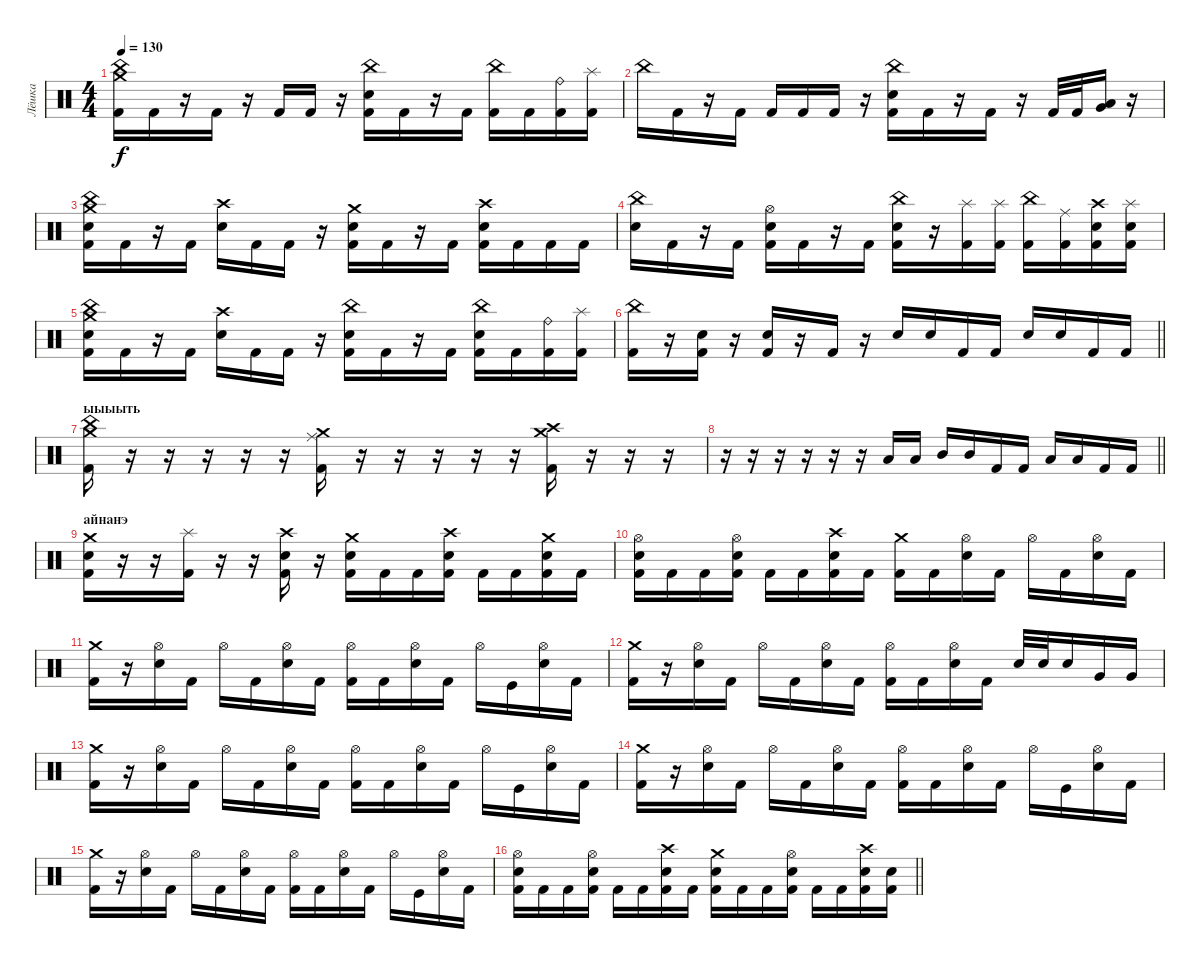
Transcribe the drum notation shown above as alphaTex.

\track ("Лёшка" "Лёшка") {instrument percussion}
\staff {score}
\articulation defaults
\ts (4 4)
\tempo 130
\clef neutral
\ks c
("China (hit)" "Crash medium (hit)" "Kick (hit) 2").16{dy f} "Kick (hit) 2".16 r.16 "Kick (hit) 2".16 r.16 "Kick (hit) 2".16 "Kick (hit) 2".16 r.16 ("China (hit)" "Electric Snare (hit)" "Kick (hit) 2").16 "Kick (hit) 2".16 r.16 "Kick (hit) 2".16 ("China (hit)" "Kick (hit) 2").16 "Kick (hit) 2".16 ("Ride (bell)" "Kick (hit) 2").16 ("Splash (hit)" "Kick (hit) 2").16 |
"China (hit)".16 "Kick (hit) 2".16 r.16 "Kick (hit) 2".16 "Kick (hit) 2".16 "Kick (hit) 2".16 "Kick (hit) 2".16 r.16 ("China (hit)" "Electric Snare (hit)" "Kick (hit) 2").16 "Kick (hit) 2".16 r.16 "Kick (hit) 2".16 r.16 "Kick (hit) 2".32 "Kick (hit) 2".32 ("Very Low Tom (hit)" "Low Tom (hit)").16 r.16 |
("China (hit)" "Crash medium (hit)" "Electric Snare (hit)" "Kick (hit) 2").16 "Kick (hit) 2".16 r.16 "Kick (hit) 2".16 ("Crash high (hit)" "Electric Snare (hit)").16 "Kick (hit) 2".16 "Kick (hit) 2".16 r.16 ("Crash medium (hit)" "Electric Snare (hit)" "Kick (hit) 2").16 "Kick (hit) 2".16 r.16 "Kick (hit) 2".16 ("Crash high (hit)" "Electric Snare (hit)" "Kick (hit) 2").16 "Kick (hit) 2".16 "Kick (hit) 2".16 "Kick (hit) 2".16 |
("China (hit)" "Electric Snare (hit)").16 "Kick (hit) 2".16 r.16 "Kick (hit) 2".16 ("Hi-Hat (open)" "Electric Snare (hit)" "Kick (hit) 2").16 "Kick (hit) 2".16 r.16 "Kick (hit) 2".16 ("China (hit)" "Electric Snare (hit)" "Kick (hit) 2").16 r.16 ("Splash (hit)" "Kick (hit) 2").16 ("Splash (hit)" "Kick (hit) 2").16 ("China (hit)" "Kick (hit) 2").16 ("Ride (middle)" "Kick (hit) 2").16 ("Crash high (hit)" "Electric Snare (hit)" "Kick (hit) 2").16 ("Splash (hit)" "Electric Snare (hit)" "Kick (hit) 2").16 |
("China (hit)" "Crash medium (hit)" "Electric Snare (hit)" "Kick (hit) 2").16 "Kick (hit) 2".16 r.16 "Kick (hit) 2".16 ("Crash high (hit)" "Electric Snare (hit)").16 "Kick (hit) 2".16 "Kick (hit) 2".16 r.16 ("China (hit)" "Electric Snare (hit)" "Kick (hit) 2").16 "Kick (hit) 2".16 r.16 "Kick (hit) 2".16 ("China (hit)" "Electric Snare (hit)" "Kick (hit) 2").16 "Kick (hit) 2".16 ("Ride (bell)" "Kick (hit) 2").16 ("Splash (hit)" "Kick (hit) 2").16 |
\barLineRight lightlight
("China (hit)" "Kick (hit) 2").16 r.16 ("Electric Snare (hit)" "Kick (hit) 2").16 r.16 ("Electric Snare (hit)" "Kick (hit) 2").16 r.16 "Kick (hit) 2".16 r.16 "Electric Snare (hit)".16 "Electric Snare (hit)".16 "Kick (hit) 2".16 "Kick (hit) 2".16 "Electric Snare (hit)".16 "Electric Snare (hit)".16 "Kick (hit) 2".16 "Kick (hit) 2".16 |
\section ("" "ыыыыть")
("Crash medium (hit)" "China (hit)" "Kick (hit) 2").16 r.16 r.16 r.16 r.16 r.16 ("Crash medium (hit)" "Ride (middle)" "Kick (hit) 2").16 r.16 r.16 r.16 r.16 r.16 ("Crash medium (hit)" "Crash high (hit)" "Kick (hit) 2").16 r.16 r.16 r.16 |
\barLineRight lightlight
r.16 r.16 r.16 r.16 r.16 r.16 "Low Tom (hit)".16 "Low Tom (hit)".16 "Mid Tom (hit)".16 "Mid Tom (hit)".16 "Kick (hit) 2".16 "Kick (hit) 2".16 "Low Tom (hit)".16 "Low Tom (hit)".16 "Kick (hit) 2".16 "Kick (hit) 2".16 |
\section ("" "айнанэ")
("Crash medium (hit)" "Electric Snare (hit)" "Kick (hit) 2").16 r.16 r.16 ("Splash (hit)" "Kick (hit) 2").16 r.16 r.16 ("Crash high (hit)" "Electric Snare (hit)" "Kick (hit) 2").16 r.16 ("Crash medium (hit)" "Electric Snare (hit)" "Kick (hit) 2").16 "Kick (hit) 2".16 "Kick (hit) 2".16 ("Crash high (hit)" "Electric Snare (hit)" "Kick (hit) 2").16 "Kick (hit) 2".16 "Kick (hit) 2".16 ("Crash medium (hit)" "Electric Snare (hit)" "Kick (hit) 2").16 "Kick (hit) 2".16 |
("Hi-Hat (open)" "Electric Snare (hit)" "Kick (hit) 2").16 "Kick (hit) 2".16 "Kick (hit) 2".16 ("Hi-Hat (open)" "Electric Snare (hit)" "Kick (hit) 2").16 "Kick (hit) 2".16 "Kick (hit) 2".16 ("Crash high (hit)" "Electric Snare (hit)" "Kick (hit) 2").16 "Kick (hit) 2".16 ("Crash medium (hit)" "Kick (hit) 2").16 "Kick (hit) 2".16 ("Hi-Hat (open)" "Electric Snare (hit)").16 "Kick (hit) 2".16 "Hi-Hat (open)".16 "Kick (hit) 2".16 ("Hi-Hat (open)" "Electric Snare (hit)").16 "Kick (hit) 2".16 |
("Crash medium (hit)" "Kick (hit) 2").16 r.16 ("Hi-Hat (open)" "Electric Snare (hit)").16 "Kick (hit) 2".16 "Hi-Hat (open)".16 "Kick (hit) 2".16 ("Hi-Hat (open)" "Electric Snare (hit)").16 "Kick (hit) 2".16 ("Hi-Hat (open)" "Kick (hit) 2").16 "Kick (hit) 2".16 ("Hi-Hat (open)" "Electric Snare (hit)").16 "Kick (hit) 2".16 "Hi-Hat (open)".16 "Kick (hit)".16 ("Hi-Hat (open)" "Electric Snare (hit)").16 "Kick (hit) 2".16 |
("Crash medium (hit)" "Kick (hit) 2").16 r.16 ("Hi-Hat (open)" "Electric Snare (hit)").16 "Kick (hit) 2".16 "Hi-Hat (open)".16 "Kick (hit) 2".16 ("Hi-Hat (open)" "Electric Snare (hit)").16 "Kick (hit) 2".16 ("Hi-Hat (open)" "Kick (hit) 2").16 "Kick (hit) 2".16 ("Hi-Hat (open)" "Electric Snare (hit)").16 "Kick (hit) 2".16 "Electric Snare (hit)".32 "Electric Snare (hit)".32 "Electric Snare (hit)".16 "Very Low Tom (hit)".16 "Very Low Tom (hit)".16 |
("Crash medium (hit)" "Kick (hit) 2").16 r.16 ("Hi-Hat (open)" "Electric Snare (hit)").16 "Kick (hit) 2".16 "Hi-Hat (open)".16 "Kick (hit) 2".16 ("Hi-Hat (open)" "Electric Snare (hit)").16 "Kick (hit) 2".16 ("Hi-Hat (open)" "Kick (hit) 2").16 "Kick (hit) 2".16 ("Hi-Hat (open)" "Electric Snare (hit)").16 "Kick (hit) 2".16 "Hi-Hat (open)".16 "Kick (hit)".16 ("Hi-Hat (open)" "Electric Snare (hit)").16 "Kick (hit) 2".16 |
("Crash medium (hit)" "Kick (hit) 2").16 r.16 ("Hi-Hat (open)" "Electric Snare (hit)").16 "Kick (hit) 2".16 "Hi-Hat (open)".16 "Kick (hit) 2".16 ("Hi-Hat (open)" "Electric Snare (hit)").16 "Kick (hit) 2".16 ("Hi-Hat (open)" "Kick (hit) 2").16 "Kick (hit) 2".16 ("Hi-Hat (open)" "Electric Snare (hit)").16 "Kick (hit) 2".16 "Hi-Hat (open)".16 "Kick (hit)".16 ("Hi-Hat (open)" "Electric Snare (hit)").16 "Kick (hit) 2".16 |
("Crash medium (hit)" "Kick (hit) 2").16 r.16 ("Hi-Hat (open)" "Electric Snare (hit)").16 "Kick (hit) 2".16 "Hi-Hat (open)".16 "Kick (hit) 2".16 ("Hi-Hat (open)" "Electric Snare (hit)").16 "Kick (hit) 2".16 ("Hi-Hat (open)" "Kick (hit) 2").16 "Kick (hit) 2".16 ("Hi-Hat (open)" "Electric Snare (hit)").16 "Kick (hit) 2".16 "Hi-Hat (open)".16 "Kick (hit)".16 ("Hi-Hat (open)" "Electric Snare (hit)").16 "Kick (hit) 2".16 |
\barLineRight lightlight
("Hi-Hat (open)" "Electric Snare (hit)" "Kick (hit) 2").16 "Kick (hit) 2".16 "Kick (hit) 2".16 ("Hi-Hat (open)" "Electric Snare (hit)" "Kick (hit) 2").16 "Kick (hit) 2".16 "Kick (hit) 2".16 ("Crash high (hit)" "Electric Snare (hit)" "Kick (hit) 2").16 "Kick (hit) 2".16 ("Crash medium (hit)" "Electric Snare (hit)" "Kick (hit) 2").16 "Kick (hit) 2".16 "Kick (hit) 2".16 ("Hi-Hat (open)" "Electric Snare (hit)" "Kick (hit) 2").16 "Kick (hit) 2".16 "Kick (hit) 2".16 ("Crash high (hit)" "Electric Snare (hit)" "Kick (hit) 2").16 ("Electric Snare (hit)" "Kick (hit) 2").16
